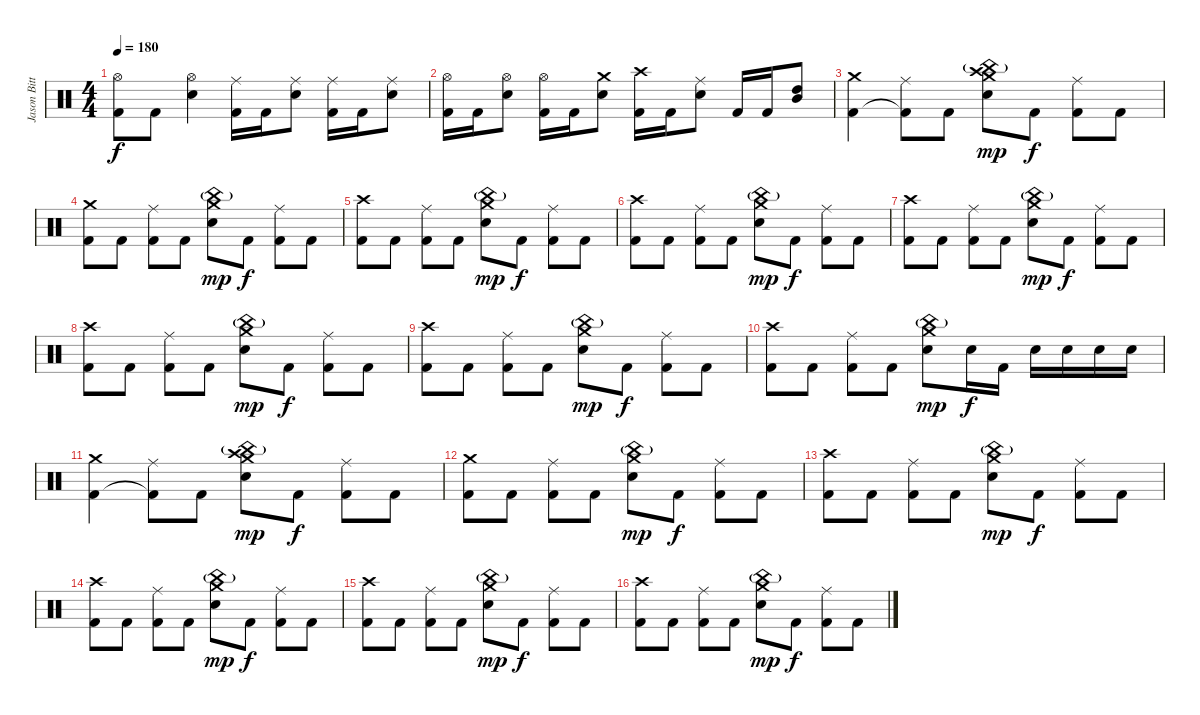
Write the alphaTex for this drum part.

\track ("Jason Bittner" "Jason Bitt") {instrument percussion}
\staff {score}
\articulation defaults
\ts (4 4)
\tempo 180
\clef neutral
\ks c
("Hi-Hat (open)" "Kick (hit) 2").8{dy f} "Kick (hit) 2".8 ("Hi-Hat (open)" "Electric Snare (hit)").4 ("Ride (middle)" "Kick (hit) 2").16 "Kick (hit) 2".16 ("Ride (middle)" "Electric Snare (hit)").8 ("Ride (middle)" "Kick (hit) 2").16 "Kick (hit) 2".16 ("Ride (middle)" "Electric Snare (hit)").8 |
("Hi-Hat (open)" "Kick (hit) 2").16 "Kick (hit) 2".16 ("Hi-Hat (open)" "Electric Snare (hit)").8 ("Hi-Hat (open)" "Kick (hit) 2").16 "Kick (hit) 2".16 ("Crash medium (hit)" "Electric Snare (hit)").8 ("Crash high (hit)" "Kick (hit) 2").16 "Kick (hit) 2".16 ("Ride (middle)" "Electric Snare (hit)").8 "Kick (hit) 2".16 "Kick (hit) 2".16 ("High Tom (hit)" "Mid Tom (hit)").8 |
("Crash medium (hit)" "Kick (hit) 2").4 ("Ride (middle)" "Kick (hit) 2"{t}).8 "Kick (hit) 2".8 ("Crash high (hit)" "China (hit)"{g} "Crash medium (hit)" "Electric Snare (hit)").8{dy mp} "Kick (hit) 2".8{dy f} ("Ride (middle)" "Kick (hit) 2").8 "Kick (hit) 2".8 |
("Crash medium (hit)" "Kick (hit) 2").8 "Kick (hit) 2".8 ("Ride (middle)" "Kick (hit) 2").8 "Kick (hit) 2".8 ("China (hit)"{g} "Crash medium (hit)" "Electric Snare (hit)").8{dy mp} "Kick (hit) 2".8{dy f} ("Ride (middle)" "Kick (hit) 2").8 "Kick (hit) 2".8 |
("Crash high (hit)" "Kick (hit) 2").8 "Kick (hit) 2".8 ("Ride (middle)" "Kick (hit) 2").8 "Kick (hit) 2".8 ("China (hit)"{g} "Crash medium (hit)" "Electric Snare (hit)").8{dy mp} "Kick (hit) 2".8{dy f} ("Ride (middle)" "Kick (hit) 2").8 "Kick (hit) 2".8 |
("Crash high (hit)" "Kick (hit) 2").8 "Kick (hit) 2".8 ("Ride (middle)" "Kick (hit) 2").8 "Kick (hit) 2".8 ("China (hit)"{g} "Crash medium (hit)" "Electric Snare (hit)").8{dy mp} "Kick (hit) 2".8{dy f} ("Ride (middle)" "Kick (hit) 2").8 "Kick (hit) 2".8 |
("Crash high (hit)" "Kick (hit) 2").8 "Kick (hit) 2".8 ("Ride (middle)" "Kick (hit) 2").8 "Kick (hit) 2".8 ("China (hit)"{g} "Crash medium (hit)" "Electric Snare (hit)").8{dy mp} "Kick (hit) 2".8{dy f} ("Ride (middle)" "Kick (hit) 2").8 "Kick (hit) 2".8 |
("Crash high (hit)" "Kick (hit) 2").8 "Kick (hit) 2".8 ("Ride (middle)" "Kick (hit) 2").8 "Kick (hit) 2".8 ("China (hit)"{g} "Crash medium (hit)" "Electric Snare (hit)").8{dy mp} "Kick (hit) 2".8{dy f} ("Ride (middle)" "Kick (hit) 2").8 "Kick (hit) 2".8 |
("Crash high (hit)" "Kick (hit) 2").8 "Kick (hit) 2".8 ("Ride (middle)" "Kick (hit) 2").8 "Kick (hit) 2".8 ("China (hit)"{g} "Crash medium (hit)" "Electric Snare (hit)").8{dy mp} "Kick (hit) 2".8{dy f} ("Ride (middle)" "Kick (hit) 2").8 "Kick (hit) 2".8 |
("Crash high (hit)" "Kick (hit) 2").8 "Kick (hit) 2".8 ("Ride (middle)" "Kick (hit) 2").8 "Kick (hit) 2".8 ("China (hit)"{g} "Crash medium (hit)" "Electric Snare (hit)").8{dy mp} "Electric Snare (hit)".16{dy f} "Kick (hit) 2".16 "Electric Snare (hit)".16 "Electric Snare (hit)".16 "Electric Snare (hit)".16 "Electric Snare (hit)".16 |
("Crash medium (hit)" "Kick (hit) 2").4 ("Ride (middle)" "Kick (hit) 2"{t}).8 "Kick (hit) 2".8 ("Crash high (hit)" "China (hit)"{g} "Crash medium (hit)" "Electric Snare (hit)").8{dy mp} "Kick (hit) 2".8{dy f} ("Ride (middle)" "Kick (hit) 2").8 "Kick (hit) 2".8 |
("Crash medium (hit)" "Kick (hit) 2").8 "Kick (hit) 2".8 ("Ride (middle)" "Kick (hit) 2").8 "Kick (hit) 2".8 ("China (hit)"{g} "Crash medium (hit)" "Electric Snare (hit)").8{dy mp} "Kick (hit) 2".8{dy f} ("Ride (middle)" "Kick (hit) 2").8 "Kick (hit) 2".8 |
("Crash high (hit)" "Kick (hit) 2").8 "Kick (hit) 2".8 ("Ride (middle)" "Kick (hit) 2").8 "Kick (hit) 2".8 ("China (hit)"{g} "Crash medium (hit)" "Electric Snare (hit)").8{dy mp} "Kick (hit) 2".8{dy f} ("Ride (middle)" "Kick (hit) 2").8 "Kick (hit) 2".8 |
("Crash high (hit)" "Kick (hit) 2").8 "Kick (hit) 2".8 ("Ride (middle)" "Kick (hit) 2").8 "Kick (hit) 2".8 ("China (hit)"{g} "Crash medium (hit)" "Electric Snare (hit)").8{dy mp} "Kick (hit) 2".8{dy f} ("Ride (middle)" "Kick (hit) 2").8 "Kick (hit) 2".8 |
("Crash high (hit)" "Kick (hit) 2").8 "Kick (hit) 2".8 ("Ride (middle)" "Kick (hit) 2").8 "Kick (hit) 2".8 ("China (hit)"{g} "Crash medium (hit)" "Electric Snare (hit)").8{dy mp} "Kick (hit) 2".8{dy f} ("Ride (middle)" "Kick (hit) 2").8 "Kick (hit) 2".8 |
("Crash high (hit)" "Kick (hit) 2").8 "Kick (hit) 2".8 ("Ride (middle)" "Kick (hit) 2").8 "Kick (hit) 2".8 ("China (hit)"{g} "Crash medium (hit)" "Electric Snare (hit)").8{dy mp} "Kick (hit) 2".8{dy f} ("Ride (middle)" "Kick (hit) 2").8 "Kick (hit) 2".8
